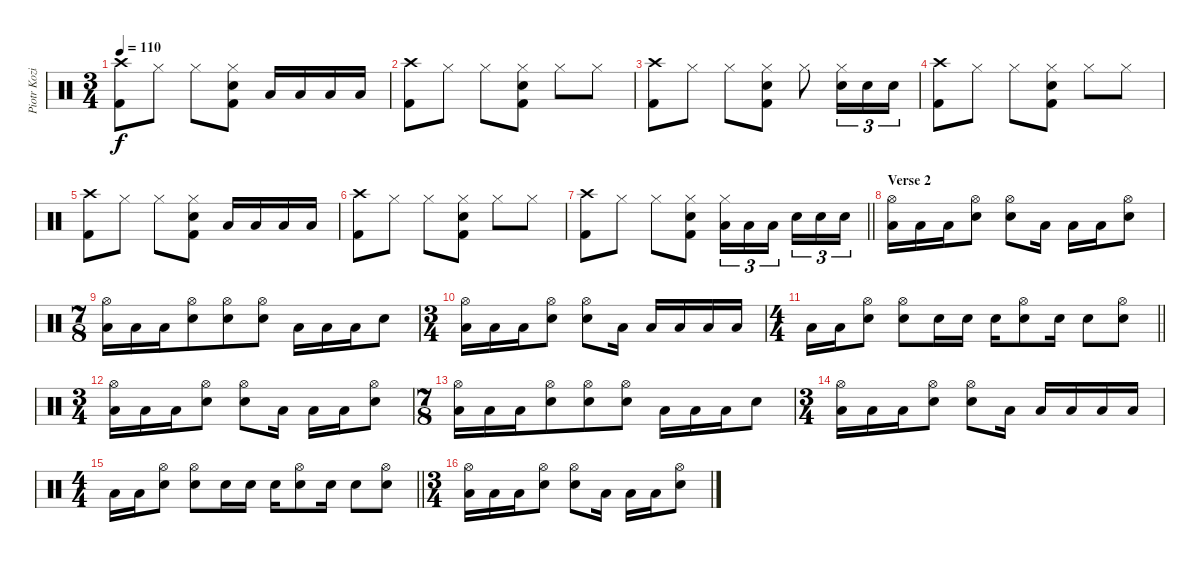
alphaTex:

\track ("Piotr Kozieradzki" "Piotr Kozi") {instrument percussion}
\staff {score}
\articulation defaults
\ts (3 4)
\tempo 110
\clef neutral
\ks c
("Crash high (hit)" "Kick (hit) 2").8{dy f} "Hi-Hat (closed)".8 "Hi-Hat (closed)".8 ("Hi-Hat (closed)" "Electric Snare (hit)" "Kick (hit) 2").8 "Low Tom (hit)".16 "Low Tom (hit)".16 "Low Tom (hit)".16 "Low Tom (hit)".16 |
("Crash high (hit)" "Kick (hit) 2").8 "Hi-Hat (closed)".8 "Hi-Hat (closed)".8 ("Hi-Hat (closed)" "Electric Snare (hit)" "Kick (hit) 2").8 "Hi-Hat (closed)".8 "Hi-Hat (closed)".8 |
("Crash high (hit)" "Kick (hit) 2").8 "Hi-Hat (closed)".8 "Hi-Hat (closed)".8 ("Hi-Hat (closed)" "Electric Snare (hit)" "Kick (hit) 2").8 "Hi-Hat (closed)".8 ("Hi-Hat (closed)" "Electric Snare (hit)").16{tu (3 2)} "Electric Snare (hit)".16{tu (3 2)} "Electric Snare (hit)".16{tu (3 2)} |
("Crash high (hit)" "Kick (hit) 2").8 "Hi-Hat (closed)".8 "Hi-Hat (closed)".8 ("Hi-Hat (closed)" "Electric Snare (hit)" "Kick (hit) 2").8 "Hi-Hat (closed)".8 "Hi-Hat (closed)".8 |
("Crash high (hit)" "Kick (hit) 2").8 "Hi-Hat (closed)".8 "Hi-Hat (closed)".8 ("Hi-Hat (closed)" "Electric Snare (hit)" "Kick (hit) 2").8 "Low Tom (hit)".16 "Low Tom (hit)".16 "Low Tom (hit)".16 "Low Tom (hit)".16 |
("Crash high (hit)" "Kick (hit) 2").8 "Hi-Hat (closed)".8 "Hi-Hat (closed)".8 ("Hi-Hat (closed)" "Electric Snare (hit)" "Kick (hit) 2").8 "Hi-Hat (closed)".8 "Hi-Hat (closed)".8 |
\barLineRight lightlight
("Crash high (hit)" "Kick (hit) 2").8 "Hi-Hat (closed)".8 "Hi-Hat (closed)".8 ("Hi-Hat (closed)" "Electric Snare (hit)" "Kick (hit) 2").8 ("Hi-Hat (closed)" "Low Tom (hit)").16{tu (3 2)} "Low Tom (hit)".16{tu (3 2)} "Low Tom (hit)".16{tu (3 2) beam splitsecondary} "Electric Snare (hit)".16{tu (3 2)} "Electric Snare (hit)".16{tu (3 2)} "Electric Snare (hit)".16{tu (3 2)} |
\section ("" "Verse 2")
("Hi-Hat (open)" "Low Tom (hit)").16 "Low Tom (hit)".16 "Low Tom (hit)".16 ("Hi-Hat (open)" "Electric Snare (hit)").8 ("Hi-Hat (open)" "Electric Snare (hit)").8 "Low Tom (hit)".16 "Low Tom (hit)".16 "Low Tom (hit)".16 ("Hi-Hat (open)" "Electric Snare (hit)").8 |
\ts (7 8)
("Hi-Hat (open)" "Low Tom (hit)").16 "Low Tom (hit)".16 "Low Tom (hit)".16 ("Hi-Hat (open)" "Electric Snare (hit)").8 ("Hi-Hat (open)" "Electric Snare (hit)").8 ("Hi-Hat (open)" "Electric Snare (hit)").8 "Low Tom (hit)".16 "Low Tom (hit)".16 "Low Tom (hit)".16 "Electric Snare (hit)".8 |
\ts (3 4)
("Hi-Hat (open)" "Low Tom (hit)").16 "Low Tom (hit)".16 "Low Tom (hit)".16 ("Hi-Hat (open)" "Electric Snare (hit)").8 ("Hi-Hat (open)" "Electric Snare (hit)").8 "Low Tom (hit)".16 "Low Tom (hit)".16 "Low Tom (hit)".16 "Low Tom (hit)".16 "Low Tom (hit)".16 |
\ts (4 4)
\barLineRight lightlight "Low Tom (hit)".16 "Low Tom (hit)".16
("Hi-Hat (open)" "Electric Snare (hit)").8 ("Hi-Hat (open)" "Electric Snare (hit)").8 "Electric Snare (hit)".16 "Electric Snare (hit)".16 "Electric Snare (hit)".16 ("Hi-Hat (open)" "Electric Snare (hit)").8 "Electric Snare (hit)".16 "Electric Snare (hit)".8 ("Hi-Hat (open)" "Electric Snare (hit)").8 |
\ts (3 4)
("Hi-Hat (open)" "Low Tom (hit)").16 "Low Tom (hit)".16 "Low Tom (hit)".16 ("Hi-Hat (open)" "Electric Snare (hit)").8 ("Hi-Hat (open)" "Electric Snare (hit)").8 "Low Tom (hit)".16 "Low Tom (hit)".16 "Low Tom (hit)".16 ("Hi-Hat (open)" "Electric Snare (hit)").8 |
\ts (7 8)
("Hi-Hat (open)" "Low Tom (hit)").16 "Low Tom (hit)".16 "Low Tom (hit)".16 ("Hi-Hat (open)" "Electric Snare (hit)").8 ("Hi-Hat (open)" "Electric Snare (hit)").8 ("Hi-Hat (open)" "Electric Snare (hit)").8 "Low Tom (hit)".16 "Low Tom (hit)".16 "Low Tom (hit)".16 "Electric Snare (hit)".8 |
\ts (3 4)
("Hi-Hat (open)" "Low Tom (hit)").16 "Low Tom (hit)".16 "Low Tom (hit)".16 ("Hi-Hat (open)" "Electric Snare (hit)").8 ("Hi-Hat (open)" "Electric Snare (hit)").8 "Low Tom (hit)".16 "Low Tom (hit)".16 "Low Tom (hit)".16 "Low Tom (hit)".16 "Low Tom (hit)".16 |
\ts (4 4)
\barLineRight lightlight "Low Tom (hit)".16 "Low Tom (hit)".16
("Hi-Hat (open)" "Electric Snare (hit)").8 ("Hi-Hat (open)" "Electric Snare (hit)").8 "Electric Snare (hit)".16 "Electric Snare (hit)".16 "Electric Snare (hit)".16 ("Hi-Hat (open)" "Electric Snare (hit)").8 "Electric Snare (hit)".16 "Electric Snare (hit)".8 ("Hi-Hat (open)" "Electric Snare (hit)").8 |
\ts (3 4)
("Hi-Hat (open)" "Low Tom (hit)").16 "Low Tom (hit)".16 "Low Tom (hit)".16 ("Hi-Hat (open)" "Electric Snare (hit)").8 ("Hi-Hat (open)" "Electric Snare (hit)").8 "Low Tom (hit)".16 "Low Tom (hit)".16 "Low Tom (hit)".16 ("Hi-Hat (open)" "Electric Snare (hit)").8
